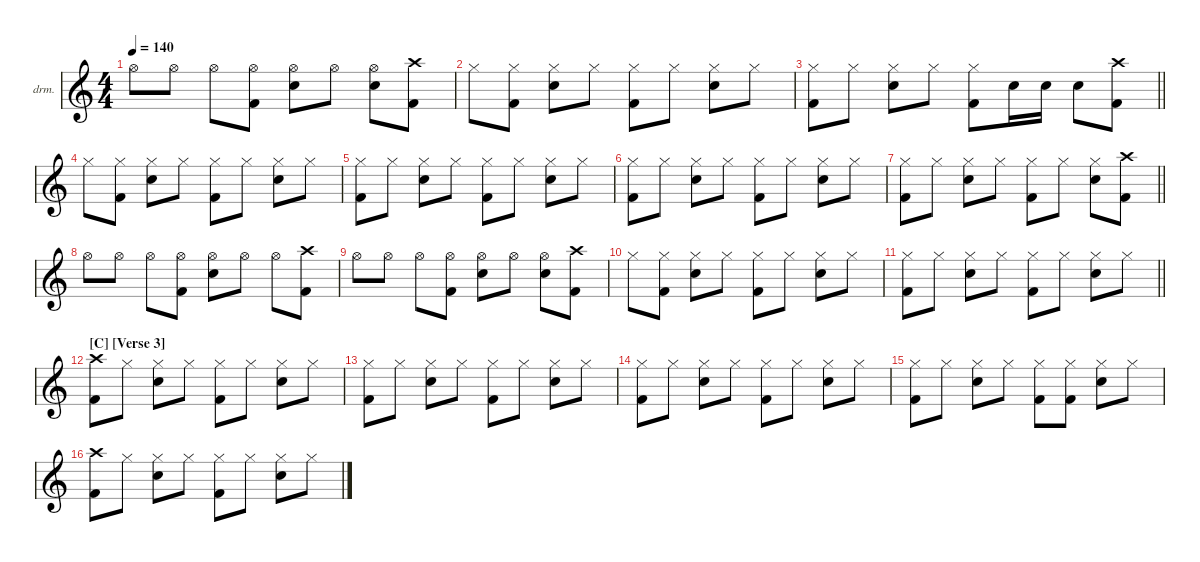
\defaultSystemsLayout 4
\hideDynamics
\bracketExtendMode nobrackets
\firstSystemTrackNameOrientation horizontal
\track ("Sepehr Tajbakhsh {Nick Menza}" "drm.") {instrument percussion}
\staff {score}
\articulation defaults
\ts (4 4)
\tempo 140
\clef g2
\ks c "Hi-Hat (open)".8{dy f beam Down} "Hi-Hat (open)".8{beam Down} "Hi-Hat (open)".8{beam Down}
("Hi-Hat (open)" "Kick (hit) 2").8{beam Down} ("Hi-Hat (open)" "Snare (hit) 2").8{beam Down} "Hi-Hat (open)".8{beam Down} ("Hi-Hat (open)" "Snare (hit) 2").8{beam Down} ("Crash high (hit)" "Kick (hit) 2").8{beam Down} |
"Hi-Hat (closed)".8{beam Down} ("Hi-Hat (closed)" "Kick (hit) 2").8{beam Down} ("Hi-Hat (closed)" "Snare (hit) 2").8{beam Down} "Hi-Hat (closed)".8{beam Down} ("Hi-Hat (closed)" "Kick (hit) 2").8{beam Down} "Hi-Hat (closed)".8{beam Down} ("Hi-Hat (closed)" "Snare (hit) 2").8{beam Down} "Hi-Hat (closed)".8{beam Down} |
\barLineRight lightlight
("Hi-Hat (closed)" "Kick (hit) 2").8{beam Down} "Hi-Hat (closed)".8{beam Down} ("Hi-Hat (closed)" "Snare (hit) 2").8{beam Down} "Hi-Hat (closed)".8{beam Down} ("Hi-Hat (closed)" "Kick (hit) 2").8{beam Down} "Snare (hit) 2".16{dy mp beam Down} "Snare (hit) 2".16{beam Down} "Snare (hit) 2".8{dy f beam Down} ("Crash high (hit)" "Kick (hit) 2").8{beam Down} |
"Hi-Hat (closed)".8{beam Down} ("Hi-Hat (closed)" "Kick (hit) 2").8{beam Down} ("Hi-Hat (closed)" "Snare (hit) 2").8{beam Down} "Hi-Hat (closed)".8{beam Down} ("Hi-Hat (closed)" "Kick (hit) 2").8{beam Down} "Hi-Hat (closed)".8{beam Down} ("Hi-Hat (closed)" "Snare (hit) 2").8{beam Down} "Hi-Hat (closed)".8{beam Down} |
("Hi-Hat (closed)" "Kick (hit) 2").8{beam Down} "Hi-Hat (closed)".8{beam Down} ("Hi-Hat (closed)" "Snare (hit) 2").8{beam Down} "Hi-Hat (closed)".8{beam Down} ("Hi-Hat (closed)" "Kick (hit) 2").8{beam Down} "Hi-Hat (closed)".8{beam Down} ("Hi-Hat (closed)" "Snare (hit) 2").8{beam Down} "Hi-Hat (closed)".8{beam Down} |
("Hi-Hat (closed)" "Kick (hit) 2").8{beam Down} "Hi-Hat (closed)".8{beam Down} ("Hi-Hat (closed)" "Snare (hit) 2").8{beam Down} "Hi-Hat (closed)".8{beam Down} ("Hi-Hat (closed)" "Kick (hit) 2").8{beam Down} "Hi-Hat (closed)".8{beam Down} ("Hi-Hat (closed)" "Snare (hit) 2").8{beam Down} "Hi-Hat (closed)".8{beam Down} |
\barLineRight lightlight
("Hi-Hat (closed)" "Kick (hit) 2").8{beam Down} "Hi-Hat (closed)".8{beam Down} ("Hi-Hat (closed)" "Snare (hit) 2").8{beam Down} "Hi-Hat (closed)".8{beam Down} ("Hi-Hat (closed)" "Kick (hit) 2").8{beam Down} "Hi-Hat (closed)".8{beam Down} ("Hi-Hat (closed)" "Snare (hit) 2").8{beam Down} ("Crash high (hit)" "Kick (hit) 2").8{beam Down} |
"Hi-Hat (open)".8{beam Down} "Hi-Hat (open)".8{beam Down} "Hi-Hat (open)".8{beam Down} ("Hi-Hat (open)" "Kick (hit) 2").8{beam Down} ("Hi-Hat (open)" "Snare (hit) 2").8{beam Down} "Hi-Hat (open)".8{beam Down} "Hi-Hat (open)".8{beam Down} ("Crash high (hit)" "Kick (hit) 2").8{beam Down} |
"Hi-Hat (open)".8{beam Down} "Hi-Hat (open)".8{beam Down} "Hi-Hat (open)".8{beam Down} ("Hi-Hat (open)" "Kick (hit) 2").8{beam Down} ("Hi-Hat (open)" "Snare (hit) 2").8{beam Down} "Hi-Hat (open)".8{beam Down} ("Hi-Hat (open)" "Snare (hit) 2").8{beam Down} ("Crash high (hit)" "Kick (hit) 2").8{beam Down} |
"Hi-Hat (closed)".8{beam Down} ("Hi-Hat (closed)" "Kick (hit) 2").8{beam Down} ("Hi-Hat (closed)" "Snare (hit) 2").8{beam Down} "Hi-Hat (closed)".8{beam Down} ("Hi-Hat (closed)" "Kick (hit) 2").8{beam Down} "Hi-Hat (closed)".8{beam Down} ("Hi-Hat (closed)" "Snare (hit) 2").8{beam Down} "Hi-Hat (closed)".8{beam Down} |
\barLineRight lightlight
("Hi-Hat (closed)" "Kick (hit) 2").8{beam Down} "Hi-Hat (closed)".8{beam Down} ("Hi-Hat (closed)" "Snare (hit) 2").8{beam Down} "Hi-Hat (closed)".8{beam Down} ("Hi-Hat (closed)" "Kick (hit) 2").8{beam Down} "Hi-Hat (closed)".8{beam Down} ("Hi-Hat (closed)" "Snare (hit) 2").8{beam Down} "Hi-Hat (closed)".8{beam Down} |
\section ("C" "[Verse 3]")
("Crash high (hit)" "Kick (hit) 2").8{beam Down} "Hi-Hat (closed)".8{beam Down} ("Hi-Hat (closed)" "Snare (hit) 2").8{beam Down} "Hi-Hat (closed)".8{beam Down} ("Hi-Hat (closed)" "Kick (hit) 2").8{beam Down} "Hi-Hat (closed)".8{beam Down} ("Hi-Hat (closed)" "Snare (hit) 2").8{beam Down} "Hi-Hat (closed)".8{beam Down} |
("Hi-Hat (closed)" "Kick (hit) 2").8{beam Down} "Hi-Hat (closed)".8{beam Down} ("Hi-Hat (closed)" "Snare (hit) 2").8{beam Down} "Hi-Hat (closed)".8{beam Down} ("Hi-Hat (closed)" "Kick (hit) 2").8{beam Down} "Hi-Hat (closed)".8{beam Down} ("Hi-Hat (closed)" "Snare (hit) 2").8{beam Down} "Hi-Hat (closed)".8{beam Down} |
("Hi-Hat (closed)" "Kick (hit) 2").8{beam Down} "Hi-Hat (closed)".8{beam Down} ("Hi-Hat (closed)" "Snare (hit) 2").8{beam Down} "Hi-Hat (closed)".8{beam Down} ("Hi-Hat (closed)" "Kick (hit) 2").8{beam Down} "Hi-Hat (closed)".8{beam Down} ("Hi-Hat (closed)" "Snare (hit) 2").8{beam Down} "Hi-Hat (closed)".8{beam Down} |
("Hi-Hat (closed)" "Kick (hit) 2").8{beam Down} "Hi-Hat (closed)".8{beam Down} ("Hi-Hat (closed)" "Snare (hit) 2").8{beam Down} "Hi-Hat (closed)".8{beam Down} ("Hi-Hat (closed)" "Kick (hit) 2").8{beam Down} ("Hi-Hat (closed)" "Kick (hit) 2").8{beam Down} ("Hi-Hat (closed)" "Snare (hit) 2").8{beam Down} "Hi-Hat (closed)".8{beam Down} |
("Crash high (hit)" "Kick (hit) 2").8{beam Down} "Hi-Hat (closed)".8{beam Down} ("Hi-Hat (closed)" "Snare (hit) 2").8{beam Down} "Hi-Hat (closed)".8{beam Down} ("Hi-Hat (closed)" "Kick (hit) 2").8{beam Down} "Hi-Hat (closed)".8{beam Down} ("Hi-Hat (closed)" "Snare (hit) 2").8{beam Down} "Hi-Hat (closed)".8{beam Down}
